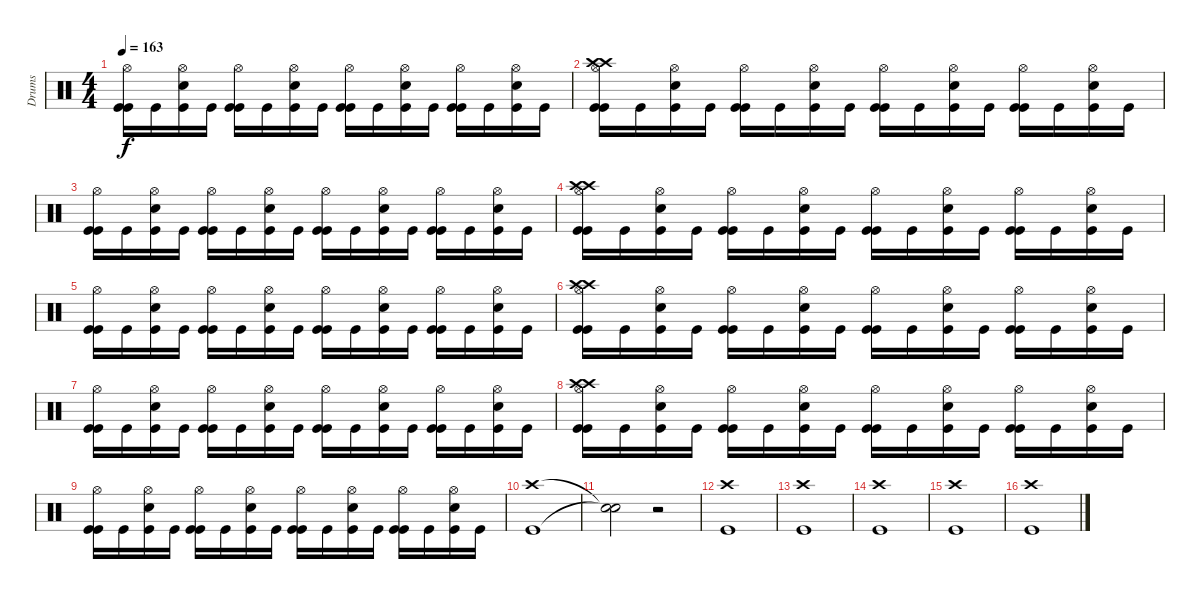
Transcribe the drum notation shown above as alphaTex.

\track ("Drums" "Drums") {instrument percussion}
\staff {score}
\articulation defaults
\ts (4 4)
\tempo 163
\clef neutral
\ks c
("Hi-Hat (open)" "Kick (hit)" "Kick (hit)").16{dy f} "Kick (hit)".16 ("Electric Snare (hit)" "Kick (hit)" "Hi-Hat (open)").16 "Kick (hit)".16 ("Hi-Hat (open)" "Kick (hit)" "Kick (hit)").16 "Kick (hit)".16 ("Electric Snare (hit)" "Kick (hit)" "Hi-Hat (open)").16 "Kick (hit)".16 ("Hi-Hat (open)" "Kick (hit)" "Kick (hit)").16 "Kick (hit)".16 ("Electric Snare (hit)" "Kick (hit)" "Hi-Hat (open)").16 "Kick (hit)".16 ("Hi-Hat (open)" "Kick (hit)" "Kick (hit)").16 "Kick (hit)".16 ("Electric Snare (hit)" "Kick (hit)" "Hi-Hat (open)").16 "Kick (hit)".16 |
("Crash high (hit)" "Crash high (hit)" "Hi-Hat (open)" "Kick (hit)" "Kick (hit)").16 "Kick (hit)".16 ("Electric Snare (hit)" "Kick (hit)" "Hi-Hat (open)").16 "Kick (hit)".16 ("Hi-Hat (open)" "Kick (hit)" "Kick (hit)").16 "Kick (hit)".16 ("Electric Snare (hit)" "Kick (hit)" "Hi-Hat (open)").16 "Kick (hit)".16 ("Hi-Hat (open)" "Kick (hit)" "Kick (hit)").16 "Kick (hit)".16 ("Electric Snare (hit)" "Kick (hit)" "Hi-Hat (open)").16 "Kick (hit)".16 ("Hi-Hat (open)" "Kick (hit)" "Kick (hit)").16 "Kick (hit)".16 ("Electric Snare (hit)" "Kick (hit)" "Hi-Hat (open)").16 "Kick (hit)".16 |
("Hi-Hat (open)" "Kick (hit)" "Kick (hit)").16 "Kick (hit)".16 ("Electric Snare (hit)" "Kick (hit)" "Hi-Hat (open)").16 "Kick (hit)".16 ("Hi-Hat (open)" "Kick (hit)" "Kick (hit)").16 "Kick (hit)".16 ("Electric Snare (hit)" "Kick (hit)" "Hi-Hat (open)").16 "Kick (hit)".16 ("Hi-Hat (open)" "Kick (hit)" "Kick (hit)").16 "Kick (hit)".16 ("Electric Snare (hit)" "Kick (hit)" "Hi-Hat (open)").16 "Kick (hit)".16 ("Hi-Hat (open)" "Kick (hit)" "Kick (hit)").16 "Kick (hit)".16 ("Electric Snare (hit)" "Kick (hit)" "Hi-Hat (open)").16 "Kick (hit)".16 |
("Crash high (hit)" "Crash high (hit)" "Hi-Hat (open)" "Kick (hit)" "Kick (hit)").16 "Kick (hit)".16 ("Electric Snare (hit)" "Kick (hit)" "Hi-Hat (open)").16 "Kick (hit)".16 ("Hi-Hat (open)" "Kick (hit)" "Kick (hit)").16 "Kick (hit)".16 ("Electric Snare (hit)" "Kick (hit)" "Hi-Hat (open)").16 "Kick (hit)".16 ("Hi-Hat (open)" "Kick (hit)" "Kick (hit)").16 "Kick (hit)".16 ("Electric Snare (hit)" "Kick (hit)" "Hi-Hat (open)").16 "Kick (hit)".16 ("Hi-Hat (open)" "Kick (hit)" "Kick (hit)").16 "Kick (hit)".16 ("Electric Snare (hit)" "Kick (hit)" "Hi-Hat (open)").16 "Kick (hit)".16 |
("Hi-Hat (open)" "Kick (hit)" "Kick (hit)").16 "Kick (hit)".16 ("Electric Snare (hit)" "Kick (hit)" "Hi-Hat (open)").16 "Kick (hit)".16 ("Hi-Hat (open)" "Kick (hit)" "Kick (hit)").16 "Kick (hit)".16 ("Electric Snare (hit)" "Kick (hit)" "Hi-Hat (open)").16 "Kick (hit)".16 ("Hi-Hat (open)" "Kick (hit)" "Kick (hit)").16 "Kick (hit)".16 ("Electric Snare (hit)" "Kick (hit)" "Hi-Hat (open)").16 "Kick (hit)".16 ("Hi-Hat (open)" "Kick (hit)" "Kick (hit)").16 "Kick (hit)".16 ("Electric Snare (hit)" "Kick (hit)" "Hi-Hat (open)").16 "Kick (hit)".16 |
("Crash high (hit)" "Crash high (hit)" "Hi-Hat (open)" "Kick (hit)" "Kick (hit)").16 "Kick (hit)".16 ("Electric Snare (hit)" "Kick (hit)" "Hi-Hat (open)").16 "Kick (hit)".16 ("Hi-Hat (open)" "Kick (hit)" "Kick (hit)").16 "Kick (hit)".16 ("Electric Snare (hit)" "Kick (hit)" "Hi-Hat (open)").16 "Kick (hit)".16 ("Hi-Hat (open)" "Kick (hit)" "Kick (hit)").16 "Kick (hit)".16 ("Electric Snare (hit)" "Kick (hit)" "Hi-Hat (open)").16 "Kick (hit)".16 ("Hi-Hat (open)" "Kick (hit)" "Kick (hit)").16 "Kick (hit)".16 ("Electric Snare (hit)" "Kick (hit)" "Hi-Hat (open)").16 "Kick (hit)".16 |
("Hi-Hat (open)" "Kick (hit)" "Kick (hit)").16 "Kick (hit)".16 ("Electric Snare (hit)" "Kick (hit)" "Hi-Hat (open)").16 "Kick (hit)".16 ("Hi-Hat (open)" "Kick (hit)" "Kick (hit)").16 "Kick (hit)".16 ("Electric Snare (hit)" "Kick (hit)" "Hi-Hat (open)").16 "Kick (hit)".16 ("Hi-Hat (open)" "Kick (hit)" "Kick (hit)").16 "Kick (hit)".16 ("Electric Snare (hit)" "Kick (hit)" "Hi-Hat (open)").16 "Kick (hit)".16 ("Hi-Hat (open)" "Kick (hit)" "Kick (hit)").16 "Kick (hit)".16 ("Electric Snare (hit)" "Kick (hit)" "Hi-Hat (open)").16 "Kick (hit)".16 |
("Crash high (hit)" "Crash high (hit)" "Hi-Hat (open)" "Kick (hit)" "Kick (hit)").16 "Kick (hit)".16 ("Electric Snare (hit)" "Kick (hit)" "Hi-Hat (open)").16 "Kick (hit)".16 ("Hi-Hat (open)" "Kick (hit)" "Kick (hit)").16 "Kick (hit)".16 ("Electric Snare (hit)" "Kick (hit)" "Hi-Hat (open)").16 "Kick (hit)".16 ("Hi-Hat (open)" "Kick (hit)" "Kick (hit)").16 "Kick (hit)".16 ("Electric Snare (hit)" "Kick (hit)" "Hi-Hat (open)").16 "Kick (hit)".16 ("Hi-Hat (open)" "Kick (hit)" "Kick (hit)").16 "Kick (hit)".16 ("Electric Snare (hit)" "Kick (hit)" "Hi-Hat (open)").16 "Kick (hit)".16 |
("Hi-Hat (open)" "Kick (hit)" "Kick (hit)").16 "Kick (hit)".16 ("Electric Snare (hit)" "Kick (hit)" "Hi-Hat (open)").16 "Kick (hit)".16 ("Hi-Hat (open)" "Kick (hit)" "Kick (hit)").16 "Kick (hit)".16 ("Electric Snare (hit)" "Kick (hit)" "Hi-Hat (open)").16 "Kick (hit)".16 ("Hi-Hat (open)" "Kick (hit)" "Kick (hit)").16 "Kick (hit)".16 ("Electric Snare (hit)" "Kick (hit)" "Hi-Hat (open)").16 "Kick (hit)".16 ("Hi-Hat (open)" "Kick (hit)" "Kick (hit)").16 "Kick (hit)".16 ("Electric Snare (hit)" "Kick (hit)" "Hi-Hat (open)").16 "Kick (hit)".16 |
("Crash high (hit)" "Kick (hit)").1 |
("Snare (hit)"{t} "Snare (hit)"{t}).2 r.2 |
("Crash high (hit)" "Kick (hit)").1 |
("Crash high (hit)" "Kick (hit)").1 |
("Crash high (hit)" "Kick (hit)").1 |
("Crash high (hit)" "Kick (hit)").1 |
("Crash high (hit)" "Kick (hit)").1
